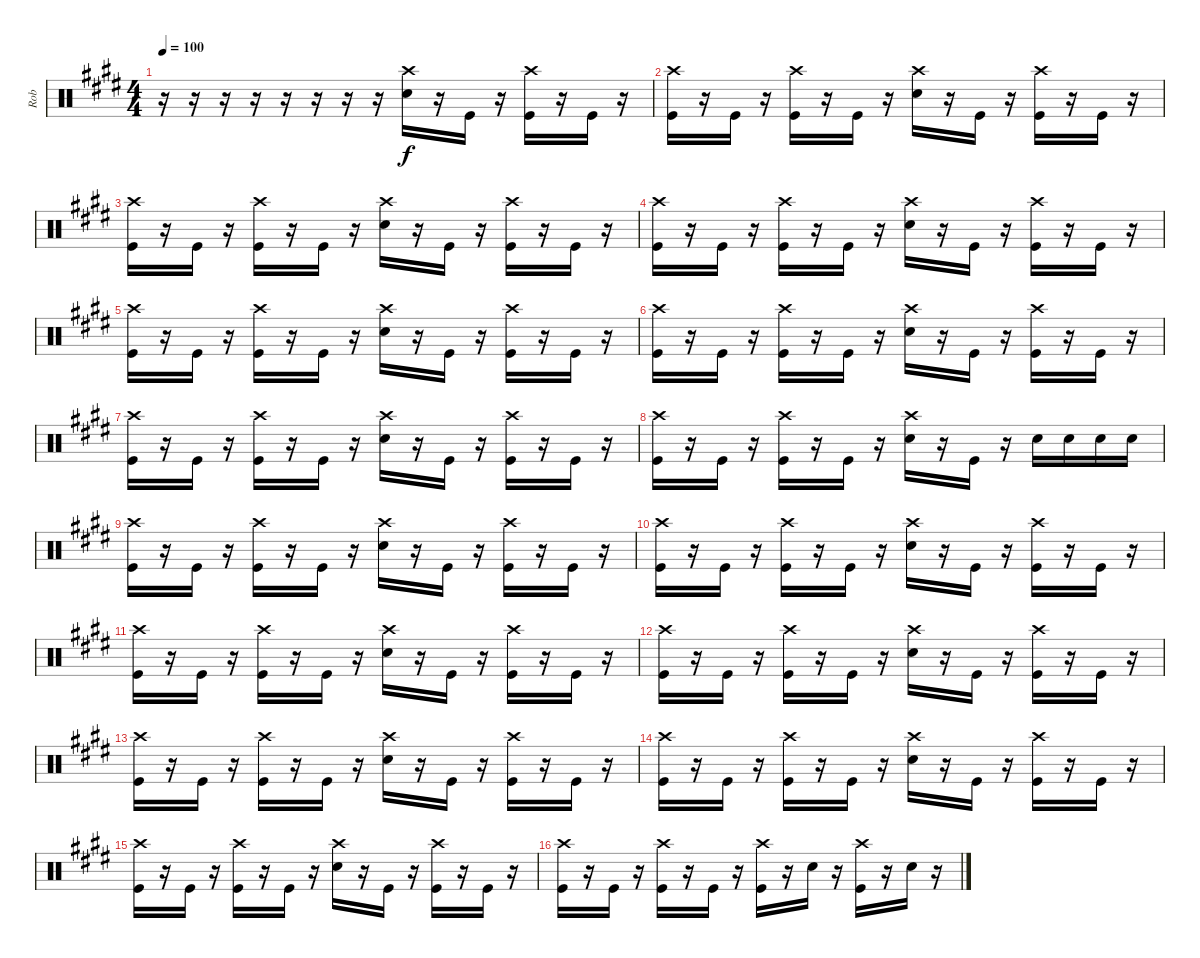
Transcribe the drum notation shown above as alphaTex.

\track ("Rob" "Rob") {instrument percussion}
\staff {score}
\articulation defaults
\ts (4 4)
\tempo 100
\clef neutral
\ks e
r.16{dy mf} r.16 r.16 r.16 r.16 r.16 r.16 r.16 ("Snare (hit) 2" "Crash high (hit)").16{dy f} r.16 "Kick (hit)".16 r.16 ("Kick (hit)" "Crash high (hit)").16 r.16 "Kick (hit)".16 r.16 |
("Kick (hit)" "Crash high (hit)").16 r.16 "Kick (hit)".16 r.16 ("Kick (hit)" "Crash high (hit)").16 r.16 "Kick (hit)".16 r.16 ("Snare (hit) 2" "Crash high (hit)").16 r.16 "Kick (hit)".16 r.16 ("Kick (hit)" "Crash high (hit)").16 r.16 "Kick (hit)".16 r.16 |
("Kick (hit)" "Crash high (hit)").16 r.16 "Kick (hit)".16 r.16 ("Kick (hit)" "Crash high (hit)").16 r.16 "Kick (hit)".16 r.16 ("Snare (hit) 2" "Crash high (hit)").16 r.16 "Kick (hit)".16 r.16 ("Kick (hit)" "Crash high (hit)").16 r.16 "Kick (hit)".16 r.16 |
("Kick (hit)" "Crash high (hit)").16 r.16 "Kick (hit)".16 r.16 ("Kick (hit)" "Crash high (hit)").16 r.16 "Kick (hit)".16 r.16 ("Snare (hit) 2" "Crash high (hit)").16 r.16 "Kick (hit)".16 r.16 ("Kick (hit)" "Crash high (hit)").16 r.16 "Kick (hit)".16 r.16 |
("Kick (hit)" "Crash high (hit)").16 r.16 "Kick (hit)".16 r.16 ("Kick (hit)" "Crash high (hit)").16 r.16 "Kick (hit)".16 r.16 ("Snare (hit) 2" "Crash high (hit)").16 r.16 "Kick (hit)".16 r.16 ("Kick (hit)" "Crash high (hit)").16 r.16 "Kick (hit)".16 r.16 |
("Kick (hit)" "Crash high (hit)").16 r.16 "Kick (hit)".16 r.16 ("Kick (hit)" "Crash high (hit)").16 r.16 "Kick (hit)".16 r.16 ("Snare (hit) 2" "Crash high (hit)").16 r.16 "Kick (hit)".16 r.16 ("Kick (hit)" "Crash high (hit)").16 r.16 "Kick (hit)".16 r.16 |
("Kick (hit)" "Crash high (hit)").16 r.16 "Kick (hit)".16 r.16 ("Kick (hit)" "Crash high (hit)").16 r.16 "Kick (hit)".16 r.16 ("Snare (hit) 2" "Crash high (hit)").16 r.16 "Kick (hit)".16 r.16 ("Kick (hit)" "Crash high (hit)").16 r.16 "Kick (hit)".16 r.16 |
("Kick (hit)" "Crash high (hit)").16 r.16 "Kick (hit)".16 r.16 ("Kick (hit)" "Crash high (hit)").16 r.16 "Kick (hit)".16 r.16 ("Snare (hit) 2" "Crash high (hit)").16 r.16 "Kick (hit)".16 r.16 "Snare (hit) 2".16 "Snare (hit) 2".16 "Snare (hit) 2".16 "Snare (hit) 2".16 |
("Kick (hit)" "Crash high (hit)").16 r.16 "Kick (hit)".16 r.16 ("Kick (hit)" "Crash high (hit)").16 r.16 "Kick (hit)".16 r.16 ("Snare (hit) 2" "Crash high (hit)").16 r.16 "Kick (hit)".16 r.16 ("Kick (hit)" "Crash high (hit)").16 r.16 "Kick (hit)".16 r.16 |
("Kick (hit)" "Crash high (hit)").16 r.16 "Kick (hit)".16 r.16 ("Kick (hit)" "Crash high (hit)").16 r.16 "Kick (hit)".16 r.16 ("Snare (hit) 2" "Crash high (hit)").16 r.16 "Kick (hit)".16 r.16 ("Kick (hit)" "Crash high (hit)").16 r.16 "Kick (hit)".16 r.16 |
("Kick (hit)" "Crash high (hit)").16 r.16 "Kick (hit)".16 r.16 ("Kick (hit)" "Crash high (hit)").16 r.16 "Kick (hit)".16 r.16 ("Snare (hit) 2" "Crash high (hit)").16 r.16 "Kick (hit)".16 r.16 ("Kick (hit)" "Crash high (hit)").16 r.16 "Kick (hit)".16 r.16 |
("Kick (hit)" "Crash high (hit)").16 r.16 "Kick (hit)".16 r.16 ("Kick (hit)" "Crash high (hit)").16 r.16 "Kick (hit)".16 r.16 ("Snare (hit) 2" "Crash high (hit)").16 r.16 "Kick (hit)".16 r.16 ("Kick (hit)" "Crash high (hit)").16 r.16 "Kick (hit)".16 r.16 |
("Kick (hit)" "Crash high (hit)").16 r.16 "Kick (hit)".16 r.16 ("Kick (hit)" "Crash high (hit)").16 r.16 "Kick (hit)".16 r.16 ("Snare (hit) 2" "Crash high (hit)").16 r.16 "Kick (hit)".16 r.16 ("Kick (hit)" "Crash high (hit)").16 r.16 "Kick (hit)".16 r.16 |
("Kick (hit)" "Crash high (hit)").16 r.16 "Kick (hit)".16 r.16 ("Kick (hit)" "Crash high (hit)").16 r.16 "Kick (hit)".16 r.16 ("Snare (hit) 2" "Crash high (hit)").16 r.16 "Kick (hit)".16 r.16 ("Kick (hit)" "Crash high (hit)").16 r.16 "Kick (hit)".16 r.16 |
("Kick (hit)" "Crash high (hit)").16 r.16 "Kick (hit)".16 r.16 ("Kick (hit)" "Crash high (hit)").16 r.16 "Kick (hit)".16 r.16 ("Snare (hit) 2" "Crash high (hit)").16 r.16 "Kick (hit)".16 r.16 ("Kick (hit)" "Crash high (hit)").16 r.16 "Kick (hit)".16 r.16 |
("Kick (hit)" "Crash high (hit)").16 r.16 "Kick (hit)".16 r.16 ("Kick (hit)" "Crash high (hit)").16 r.16 "Kick (hit)".16 r.16 ("Crash high (hit)" "Kick (hit)").16 r.16 "Snare (hit) 2".16 r.16 ("Crash high (hit)" "Kick (hit)").16 r.16 "Snare (hit) 2".16 r.16
